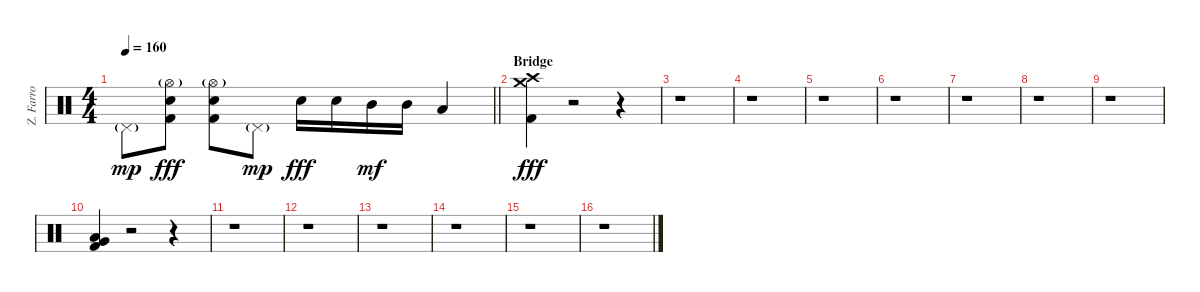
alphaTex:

\track ("Z. Farro" "Z. Farro") {instrument percussion}
\staff {score}
\articulation defaults
\ts (4 4)
\tempo 160
\clef neutral
\barLineRight lightlight
\ks c "Pedal Hi-Hat (hit)"{g}.8{dy mp}
("Hi-Hat (open)"{g} "Electric Snare (hit)" "Kick (hit) 2").8{dy fff} ("Hi-Hat (open)"{g} "Electric Snare (hit)" "Kick (hit) 2").8 "Pedal Hi-Hat (hit)"{g}.8{dy mp} "Electric Snare (hit)".16{dy fff} "Electric Snare (hit)".16 "Mid Tom (hit)".16{dy mf} "Mid Tom (hit)".16 "Low Tom (hit)".4 |
\section ("" "Bridge")
("Crash high (hit)" "Crash medium (hit)" "Kick (hit) 2").4{dy fff} r.2 r.4 |
r.1 |
r.1 |
r.1 |
r.1 |
r.1 |
r.1 |
r.1 |
("Low Tom (hit)" "Very Low Tom (hit)" "Kick (hit) 2").4 r.2 r.4 |
r.1 |
r.1 |
r.1 |
r.1 |
r.1 |
r.1
